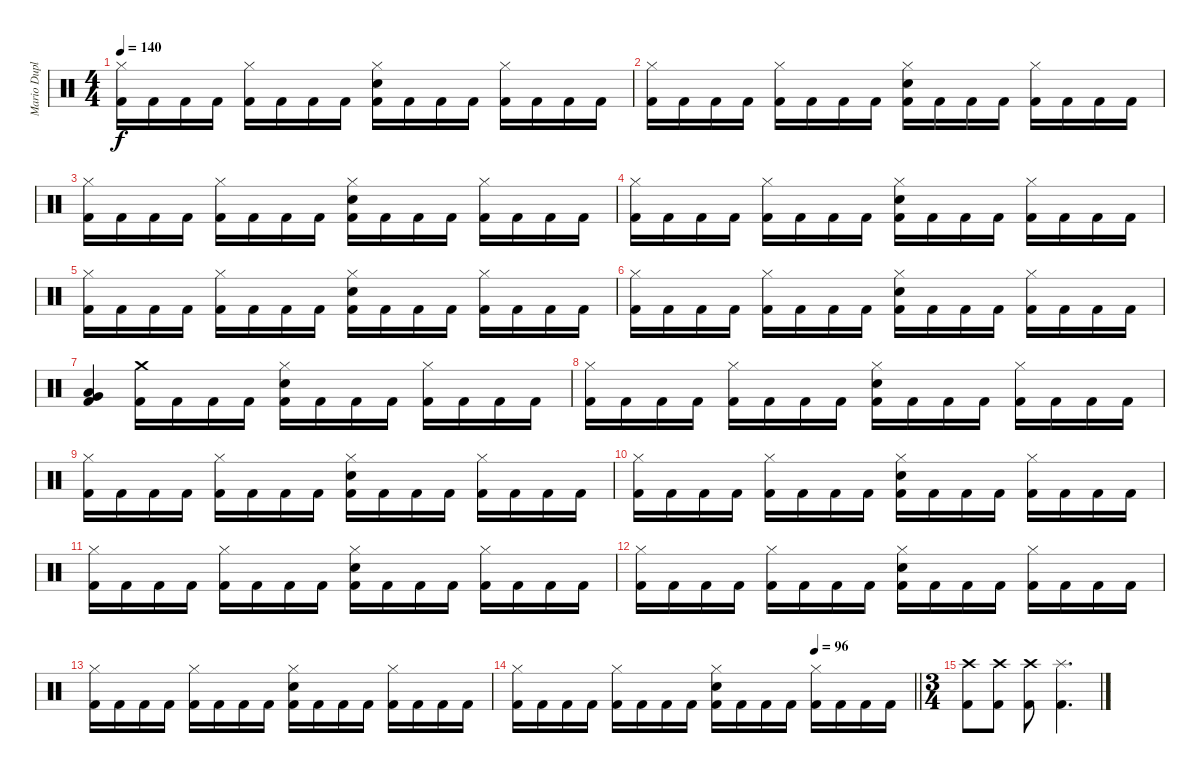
\track ("Mario Duplantier" "Mario Dupl") {instrument percussion}
\staff {score}
\articulation defaults
\ts (4 4)
\tempo 140
\clef neutral
\ks c
("Hi-Hat (closed)" "Kick (hit) 2").16{dy f} "Kick (hit) 2".16 "Kick (hit) 2".16 "Kick (hit) 2".16 ("Hi-Hat (closed)" "Kick (hit) 2").16 "Kick (hit) 2".16 "Kick (hit) 2".16 "Kick (hit) 2".16 ("Hi-Hat (closed)" "Snare (hit) 2" "Kick (hit) 2").16 "Kick (hit) 2".16 "Kick (hit) 2".16 "Kick (hit) 2".16 ("Hi-Hat (closed)" "Kick (hit) 2").16 "Kick (hit) 2".16 "Kick (hit) 2".16 "Kick (hit) 2".16 |
("Hi-Hat (closed)" "Kick (hit) 2").16 "Kick (hit) 2".16 "Kick (hit) 2".16 "Kick (hit) 2".16 ("Hi-Hat (closed)" "Kick (hit) 2").16 "Kick (hit) 2".16 "Kick (hit) 2".16 "Kick (hit) 2".16 ("Hi-Hat (closed)" "Snare (hit) 2" "Kick (hit) 2").16 "Kick (hit) 2".16 "Kick (hit) 2".16 "Kick (hit) 2".16 ("Hi-Hat (closed)" "Kick (hit) 2").16 "Kick (hit) 2".16 "Kick (hit) 2".16 "Kick (hit) 2".16 |
("Hi-Hat (closed)" "Kick (hit) 2").16 "Kick (hit) 2".16 "Kick (hit) 2".16 "Kick (hit) 2".16 ("Hi-Hat (closed)" "Kick (hit) 2").16 "Kick (hit) 2".16 "Kick (hit) 2".16 "Kick (hit) 2".16 ("Hi-Hat (closed)" "Snare (hit) 2" "Kick (hit) 2").16 "Kick (hit) 2".16 "Kick (hit) 2".16 "Kick (hit) 2".16 ("Hi-Hat (closed)" "Kick (hit) 2").16 "Kick (hit) 2".16 "Kick (hit) 2".16 "Kick (hit) 2".16 |
("Hi-Hat (closed)" "Kick (hit) 2").16 "Kick (hit) 2".16 "Kick (hit) 2".16 "Kick (hit) 2".16 ("Hi-Hat (closed)" "Kick (hit) 2").16 "Kick (hit) 2".16 "Kick (hit) 2".16 "Kick (hit) 2".16 ("Hi-Hat (closed)" "Snare (hit) 2" "Kick (hit) 2").16 "Kick (hit) 2".16 "Kick (hit) 2".16 "Kick (hit) 2".16 ("Hi-Hat (closed)" "Kick (hit) 2").16 "Kick (hit) 2".16 "Kick (hit) 2".16 "Kick (hit) 2".16 |
("Hi-Hat (closed)" "Kick (hit) 2").16 "Kick (hit) 2".16 "Kick (hit) 2".16 "Kick (hit) 2".16 ("Hi-Hat (closed)" "Kick (hit) 2").16 "Kick (hit) 2".16 "Kick (hit) 2".16 "Kick (hit) 2".16 ("Hi-Hat (closed)" "Snare (hit) 2" "Kick (hit) 2").16 "Kick (hit) 2".16 "Kick (hit) 2".16 "Kick (hit) 2".16 ("Hi-Hat (closed)" "Kick (hit) 2").16 "Kick (hit) 2".16 "Kick (hit) 2".16 "Kick (hit) 2".16 |
("Hi-Hat (closed)" "Kick (hit) 2").16 "Kick (hit) 2".16 "Kick (hit) 2".16 "Kick (hit) 2".16 ("Hi-Hat (closed)" "Kick (hit) 2").16 "Kick (hit) 2".16 "Kick (hit) 2".16 "Kick (hit) 2".16 ("Hi-Hat (closed)" "Snare (hit) 2" "Kick (hit) 2").16 "Kick (hit) 2".16 "Kick (hit) 2".16 "Kick (hit) 2".16 ("Hi-Hat (closed)" "Kick (hit) 2").16 "Kick (hit) 2".16 "Kick (hit) 2".16 "Kick (hit) 2".16 |
("Low Floor Tom (hit)" "Very Low Tom (hit)" "Kick (hit) 2").4 ("Crash medium (hit)" "Kick (hit) 2").16 "Kick (hit) 2".16 "Kick (hit) 2".16 "Kick (hit) 2".16 ("Hi-Hat (closed)" "Snare (hit) 2" "Kick (hit) 2").16 "Kick (hit) 2".16 "Kick (hit) 2".16 "Kick (hit) 2".16 ("Hi-Hat (closed)" "Kick (hit) 2").16 "Kick (hit) 2".16 "Kick (hit) 2".16 "Kick (hit) 2".16 |
("Hi-Hat (closed)" "Kick (hit) 2").16 "Kick (hit) 2".16 "Kick (hit) 2".16 "Kick (hit) 2".16 ("Hi-Hat (closed)" "Kick (hit) 2").16 "Kick (hit) 2".16 "Kick (hit) 2".16 "Kick (hit) 2".16 ("Hi-Hat (closed)" "Snare (hit) 2" "Kick (hit) 2").16 "Kick (hit) 2".16 "Kick (hit) 2".16 "Kick (hit) 2".16 ("Hi-Hat (closed)" "Kick (hit) 2").16 "Kick (hit) 2".16 "Kick (hit) 2".16 "Kick (hit) 2".16 |
("Hi-Hat (closed)" "Kick (hit) 2").16 "Kick (hit) 2".16 "Kick (hit) 2".16 "Kick (hit) 2".16 ("Hi-Hat (closed)" "Kick (hit) 2").16 "Kick (hit) 2".16 "Kick (hit) 2".16 "Kick (hit) 2".16 ("Hi-Hat (closed)" "Snare (hit) 2" "Kick (hit) 2").16 "Kick (hit) 2".16 "Kick (hit) 2".16 "Kick (hit) 2".16 ("Hi-Hat (closed)" "Kick (hit) 2").16 "Kick (hit) 2".16 "Kick (hit) 2".16 "Kick (hit) 2".16 |
("Hi-Hat (closed)" "Kick (hit) 2").16 "Kick (hit) 2".16 "Kick (hit) 2".16 "Kick (hit) 2".16 ("Hi-Hat (closed)" "Kick (hit) 2").16 "Kick (hit) 2".16 "Kick (hit) 2".16 "Kick (hit) 2".16 ("Hi-Hat (closed)" "Snare (hit) 2" "Kick (hit) 2").16 "Kick (hit) 2".16 "Kick (hit) 2".16 "Kick (hit) 2".16 ("Hi-Hat (closed)" "Kick (hit) 2").16 "Kick (hit) 2".16 "Kick (hit) 2".16 "Kick (hit) 2".16 |
("Hi-Hat (closed)" "Kick (hit) 2").16 "Kick (hit) 2".16 "Kick (hit) 2".16 "Kick (hit) 2".16 ("Hi-Hat (closed)" "Kick (hit) 2").16 "Kick (hit) 2".16 "Kick (hit) 2".16 "Kick (hit) 2".16 ("Hi-Hat (closed)" "Snare (hit) 2" "Kick (hit) 2").16 "Kick (hit) 2".16 "Kick (hit) 2".16 "Kick (hit) 2".16 ("Hi-Hat (closed)" "Kick (hit) 2").16 "Kick (hit) 2".16 "Kick (hit) 2".16 "Kick (hit) 2".16 |
("Hi-Hat (closed)" "Kick (hit) 2").16 "Kick (hit) 2".16 "Kick (hit) 2".16 "Kick (hit) 2".16 ("Hi-Hat (closed)" "Kick (hit) 2").16 "Kick (hit) 2".16 "Kick (hit) 2".16 "Kick (hit) 2".16 ("Hi-Hat (closed)" "Snare (hit) 2" "Kick (hit) 2").16 "Kick (hit) 2".16 "Kick (hit) 2".16 "Kick (hit) 2".16 ("Hi-Hat (closed)" "Kick (hit) 2").16 "Kick (hit) 2".16 "Kick (hit) 2".16 "Kick (hit) 2".16 |
("Hi-Hat (closed)" "Kick (hit) 2").16 "Kick (hit) 2".16 "Kick (hit) 2".16 "Kick (hit) 2".16 ("Hi-Hat (closed)" "Kick (hit) 2").16 "Kick (hit) 2".16 "Kick (hit) 2".16 "Kick (hit) 2".16 ("Hi-Hat (closed)" "Snare (hit) 2" "Kick (hit) 2").16 "Kick (hit) 2".16 "Kick (hit) 2".16 "Kick (hit) 2".16 ("Hi-Hat (closed)" "Kick (hit) 2").16 "Kick (hit) 2".16 "Kick (hit) 2".16 "Kick (hit) 2".16 |
\tempo (96 0.75)
\barLineRight lightlight
("Hi-Hat (closed)" "Kick (hit) 2").16 "Kick (hit) 2".16 "Kick (hit) 2".16 "Kick (hit) 2".16 ("Hi-Hat (closed)" "Kick (hit) 2").16 "Kick (hit) 2".16 "Kick (hit) 2".16 "Kick (hit) 2".16 ("Hi-Hat (closed)" "Snare (hit) 2" "Kick (hit) 2").16 "Kick (hit) 2".16 "Kick (hit) 2".16 "Kick (hit) 2".16 ("Hi-Hat (closed)" "Kick (hit) 2").16 "Kick (hit) 2".16 "Kick (hit) 2".16 "Kick (hit) 2".16 |
\ts (3 4)
\section ("" "")
("Crash high (hit)" "Kick (hit) 2").8 ("Crash high (hit)" "Kick (hit) 2").8 ("Crash high (hit)" "Kick (hit) 2").8 ("Splash (hit)" "Kick (hit) 2").4{d}
